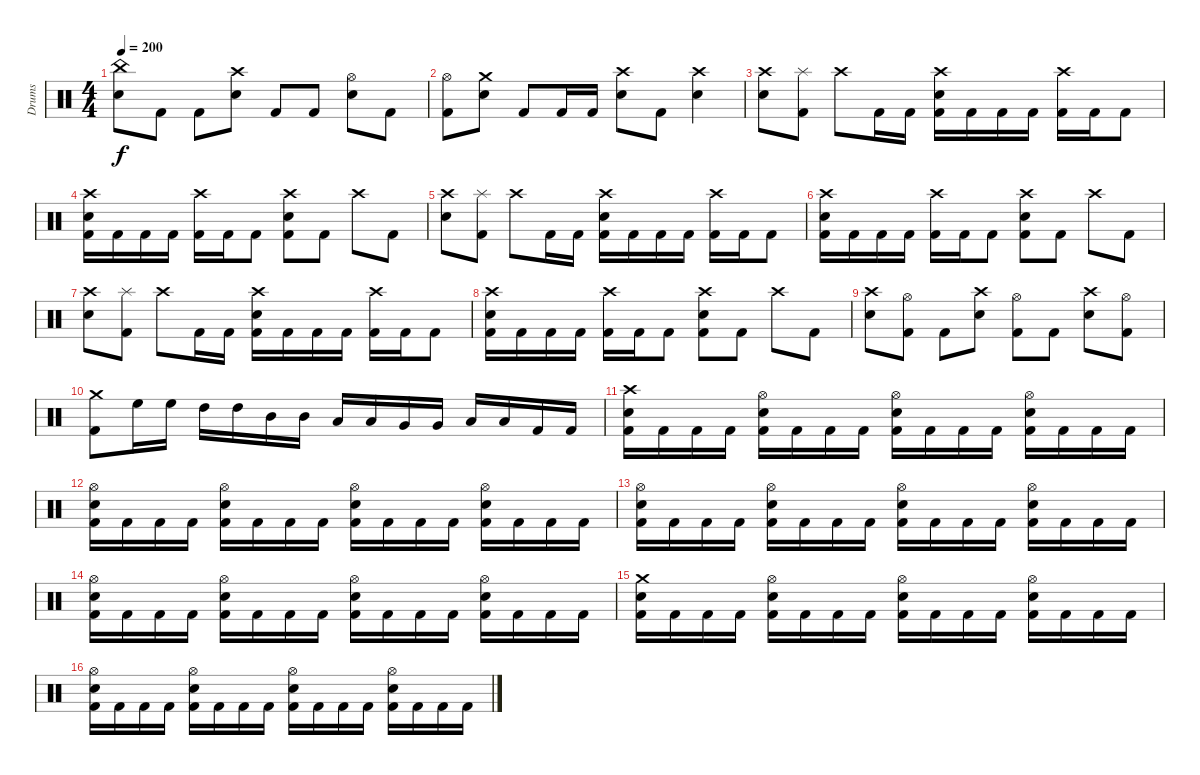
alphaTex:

\track ("Drums" "Drums") {instrument percussion}
\staff {score}
\articulation defaults
\ts (4 4)
\tempo 200
\clef neutral
\ks c
("China (hit)" "Electric Snare (hit)").8{dy f} "Kick (hit) 2".8 "Kick (hit) 2".8 ("Crash high (hit)" "Electric Snare (hit)").8 "Kick (hit) 2".8 "Kick (hit) 2".8 ("Hi-Hat (open)" "Electric Snare (hit)").8 "Kick (hit) 2".8 |
("Hi-Hat (open)" "Kick (hit) 2").8 ("Crash medium (hit)" "Electric Snare (hit)").8 "Kick (hit) 2".8 "Kick (hit) 2".16 "Kick (hit) 2".16 ("Crash high (hit)" "Electric Snare (hit)").8 "Kick (hit) 2".8 ("Crash high (hit)" "Electric Snare (hit)").4 |
("Crash high (hit)" "Electric Snare (hit)").8 ("Splash (hit)" "Kick (hit) 2").8 "Crash high (hit)".8 "Kick (hit) 2".16 "Kick (hit) 2".16 ("Crash high (hit)" "Electric Snare (hit)" "Kick (hit) 2").16 "Kick (hit) 2".16 "Kick (hit) 2".16 "Kick (hit) 2".16 ("Crash high (hit)" "Kick (hit) 2").16 "Kick (hit) 2".16 "Kick (hit) 2".8 |
("Crash high (hit)" "Electric Snare (hit)" "Kick (hit) 2").16 "Kick (hit) 2".16 "Kick (hit) 2".16 "Kick (hit) 2".16 ("Crash high (hit)" "Kick (hit) 2").16 "Kick (hit) 2".16 "Kick (hit) 2".8 ("Crash high (hit)" "Electric Snare (hit)" "Kick (hit) 2").8 "Kick (hit) 2".8 "Crash high (hit)".8 "Kick (hit) 2".8 |
("Crash high (hit)" "Electric Snare (hit)").8 ("Splash (hit)" "Kick (hit) 2").8 "Crash high (hit)".8 "Kick (hit) 2".16 "Kick (hit) 2".16 ("Crash high (hit)" "Electric Snare (hit)" "Kick (hit) 2").16 "Kick (hit) 2".16 "Kick (hit) 2".16 "Kick (hit) 2".16 ("Crash high (hit)" "Kick (hit) 2").16 "Kick (hit) 2".16 "Kick (hit) 2".8 |
("Crash high (hit)" "Electric Snare (hit)" "Kick (hit) 2").16 "Kick (hit) 2".16 "Kick (hit) 2".16 "Kick (hit) 2".16 ("Crash high (hit)" "Kick (hit) 2").16 "Kick (hit) 2".16 "Kick (hit) 2".8 ("Crash high (hit)" "Electric Snare (hit)" "Kick (hit) 2").8 "Kick (hit) 2".8 "Crash high (hit)".8 "Kick (hit) 2".8 |
("Crash high (hit)" "Electric Snare (hit)").8 ("Splash (hit)" "Kick (hit) 2").8 "Crash high (hit)".8 "Kick (hit) 2".16 "Kick (hit) 2".16 ("Crash high (hit)" "Electric Snare (hit)" "Kick (hit) 2").16 "Kick (hit) 2".16 "Kick (hit) 2".16 "Kick (hit) 2".16 ("Crash high (hit)" "Kick (hit) 2").16 "Kick (hit) 2".16 "Kick (hit) 2".8 |
("Crash high (hit)" "Electric Snare (hit)" "Kick (hit) 2").16 "Kick (hit) 2".16 "Kick (hit) 2".16 "Kick (hit) 2".16 ("Crash high (hit)" "Kick (hit) 2").16 "Kick (hit) 2".16 "Kick (hit) 2".8 ("Crash high (hit)" "Electric Snare (hit)" "Kick (hit) 2").8 "Kick (hit) 2".8 "Crash high (hit)".8 "Kick (hit) 2".8 |
("Crash high (hit)" "Electric Snare (hit)").8 ("Hi-Hat (open)" "Kick (hit) 2").8 "Kick (hit) 2".8 ("Crash high (hit)" "Electric Snare (hit)").8 ("Hi-Hat (open)" "Kick (hit) 2").8 "Kick (hit) 2".8 ("Crash high (hit)" "Electric Snare (hit)").8 ("Hi-Hat (open)" "Kick (hit) 2").8 |
("Crash medium (hit)" "Kick (hit) 2").8 "High Floor Tom (hit)".16 "High Floor Tom (hit)".16 "High Tom (hit)".16 "High Tom (hit)".16 "Mid Tom (hit)".16 "Mid Tom (hit)".16 "Low Tom (hit)".16 "Low Tom (hit)".16 "Very Low Tom (hit)".16 "Very Low Tom (hit)".16 "Low Floor Tom (hit)".16 "Low Floor Tom (hit)".16 "Kick (hit) 2".16 "Kick (hit) 2".16 |
("Crash high (hit)" "Electric Snare (hit)" "Kick (hit) 2").16 "Kick (hit) 2".16 "Kick (hit) 2".16 "Kick (hit) 2".16 ("Hi-Hat (open)" "Electric Snare (hit)" "Kick (hit) 2").16 "Kick (hit) 2".16 "Kick (hit) 2".16 "Kick (hit) 2".16 ("Hi-Hat (open)" "Electric Snare (hit)" "Kick (hit) 2").16 "Kick (hit) 2".16 "Kick (hit) 2".16 "Kick (hit) 2".16 ("Hi-Hat (open)" "Electric Snare (hit)" "Kick (hit) 2").16 "Kick (hit) 2".16 "Kick (hit) 2".16 "Kick (hit) 2".16 |
("Hi-Hat (open)" "Electric Snare (hit)" "Kick (hit) 2").16 "Kick (hit) 2".16 "Kick (hit) 2".16 "Kick (hit) 2".16 ("Hi-Hat (open)" "Electric Snare (hit)" "Kick (hit) 2").16 "Kick (hit) 2".16 "Kick (hit) 2".16 "Kick (hit) 2".16 ("Hi-Hat (open)" "Electric Snare (hit)" "Kick (hit) 2").16 "Kick (hit) 2".16 "Kick (hit) 2".16 "Kick (hit) 2".16 ("Hi-Hat (open)" "Electric Snare (hit)" "Kick (hit) 2").16 "Kick (hit) 2".16 "Kick (hit) 2".16 "Kick (hit) 2".16 |
("Hi-Hat (open)" "Electric Snare (hit)" "Kick (hit) 2").16 "Kick (hit) 2".16 "Kick (hit) 2".16 "Kick (hit) 2".16 ("Hi-Hat (open)" "Electric Snare (hit)" "Kick (hit) 2").16 "Kick (hit) 2".16 "Kick (hit) 2".16 "Kick (hit) 2".16 ("Hi-Hat (open)" "Electric Snare (hit)" "Kick (hit) 2").16 "Kick (hit) 2".16 "Kick (hit) 2".16 "Kick (hit) 2".16 ("Hi-Hat (open)" "Electric Snare (hit)" "Kick (hit) 2").16 "Kick (hit) 2".16 "Kick (hit) 2".16 "Kick (hit) 2".16 |
("Hi-Hat (open)" "Electric Snare (hit)" "Kick (hit) 2").16 "Kick (hit) 2".16 "Kick (hit) 2".16 "Kick (hit) 2".16 ("Hi-Hat (open)" "Electric Snare (hit)" "Kick (hit) 2").16 "Kick (hit) 2".16 "Kick (hit) 2".16 "Kick (hit) 2".16 ("Hi-Hat (open)" "Electric Snare (hit)" "Kick (hit) 2").16 "Kick (hit) 2".16 "Kick (hit) 2".16 "Kick (hit) 2".16 ("Hi-Hat (open)" "Electric Snare (hit)" "Kick (hit) 2").16 "Kick (hit) 2".16 "Kick (hit) 2".16 "Kick (hit) 2".16 |
("Crash medium (hit)" "Electric Snare (hit)" "Kick (hit) 2").16 "Kick (hit) 2".16 "Kick (hit) 2".16 "Kick (hit) 2".16 ("Hi-Hat (open)" "Electric Snare (hit)" "Kick (hit) 2").16 "Kick (hit) 2".16 "Kick (hit) 2".16 "Kick (hit) 2".16 ("Hi-Hat (open)" "Electric Snare (hit)" "Kick (hit) 2").16 "Kick (hit) 2".16 "Kick (hit) 2".16 "Kick (hit) 2".16 ("Hi-Hat (open)" "Electric Snare (hit)" "Kick (hit) 2").16 "Kick (hit) 2".16 "Kick (hit) 2".16 "Kick (hit) 2".16 |
("Hi-Hat (open)" "Electric Snare (hit)" "Kick (hit) 2").16 "Kick (hit) 2".16 "Kick (hit) 2".16 "Kick (hit) 2".16 ("Hi-Hat (open)" "Electric Snare (hit)" "Kick (hit) 2").16 "Kick (hit) 2".16 "Kick (hit) 2".16 "Kick (hit) 2".16 ("Hi-Hat (open)" "Electric Snare (hit)" "Kick (hit) 2").16 "Kick (hit) 2".16 "Kick (hit) 2".16 "Kick (hit) 2".16 ("Hi-Hat (open)" "Electric Snare (hit)" "Kick (hit) 2").16 "Kick (hit) 2".16 "Kick (hit) 2".16 "Kick (hit) 2".16
